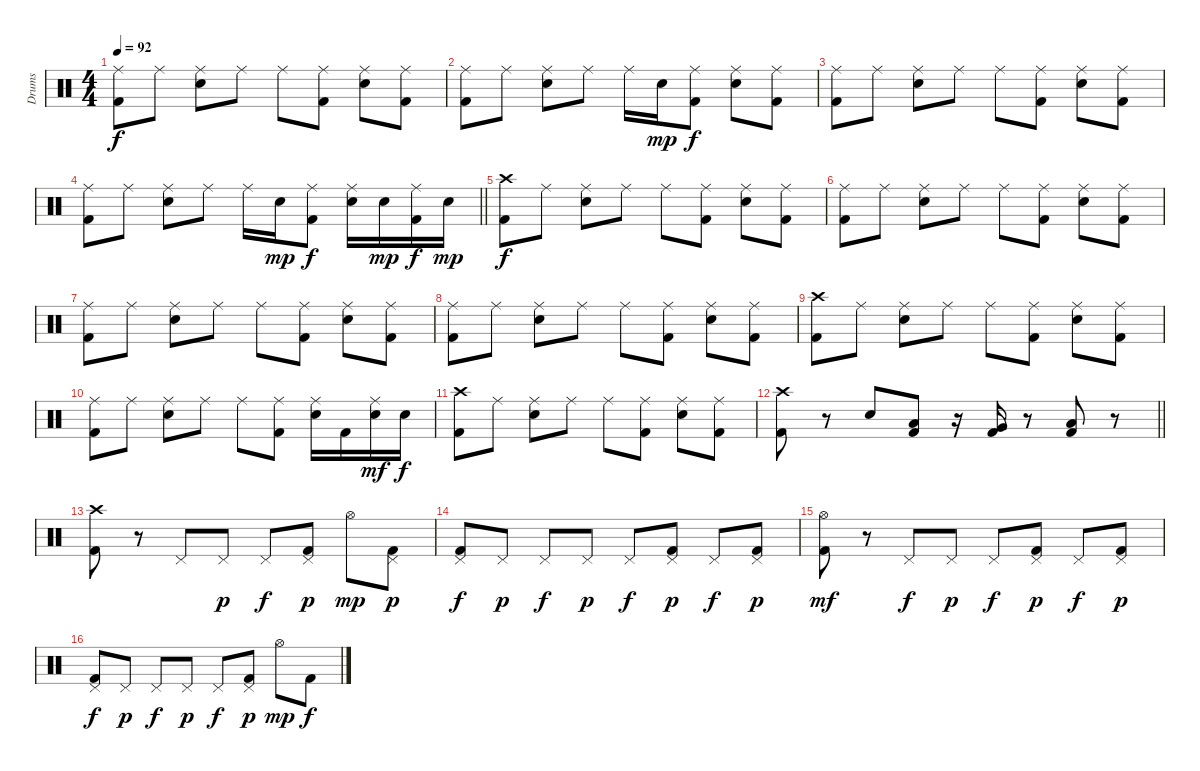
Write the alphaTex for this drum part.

\track ("Drums" "Drums") {instrument percussion}
\staff {score}
\articulation defaults
\ts (4 4)
\tempo 92
\clef neutral
\ks aminor
("Ride (middle)" "Kick (hit) 2").8{dy f} "Ride (middle)".8 ("Ride (middle)" "Electric Snare (hit)").8 "Ride (middle)".8 "Ride (middle)".8 ("Ride (middle)" "Kick (hit) 2").8 ("Ride (middle)" "Electric Snare (hit)").8 ("Ride (middle)" "Kick (hit) 2").8 |
("Ride (middle)" "Kick (hit) 2").8 "Ride (middle)".8 ("Ride (middle)" "Electric Snare (hit)").8 "Ride (middle)".8 "Ride (middle)".16 "Electric Snare (hit)".16{dy mp} ("Ride (middle)" "Kick (hit) 2").8{dy f} ("Ride (middle)" "Electric Snare (hit)").8 ("Ride (middle)" "Kick (hit) 2").8 |
("Ride (middle)" "Kick (hit) 2").8 "Ride (middle)".8 ("Ride (middle)" "Electric Snare (hit)").8 "Ride (middle)".8 "Ride (middle)".8 ("Ride (middle)" "Kick (hit) 2").8 ("Ride (middle)" "Electric Snare (hit)").8 ("Ride (middle)" "Kick (hit) 2").8 |
\barLineRight lightlight
("Ride (middle)" "Kick (hit) 2").8 "Ride (middle)".8 ("Ride (middle)" "Electric Snare (hit)").8 "Ride (middle)".8 "Ride (middle)".16 "Electric Snare (hit)".16{dy mp} ("Ride (middle)" "Kick (hit) 2").8{dy f} ("Ride (middle)" "Electric Snare (hit)").16 "Electric Snare (hit)".16{dy mp} ("Ride (middle)" "Kick (hit) 2").16{dy f} "Electric Snare (hit)".16{dy mp} |
("Crash high (hit)" "Kick (hit) 2").8{dy f} "Ride (middle)".8 ("Ride (middle)" "Electric Snare (hit)").8 "Ride (middle)".8 "Ride (middle)".8 ("Ride (middle)" "Kick (hit) 2").8 ("Ride (middle)" "Electric Snare (hit)").8 ("Ride (middle)" "Kick (hit) 2").8 |
("Ride (middle)" "Kick (hit) 2").8 "Ride (middle)".8 ("Ride (middle)" "Electric Snare (hit)").8 "Ride (middle)".8 "Ride (middle)".8 ("Ride (middle)" "Kick (hit) 2").8 ("Ride (middle)" "Electric Snare (hit)").8 ("Ride (middle)" "Kick (hit) 2").8 |
("Ride (middle)" "Kick (hit) 2").8 "Ride (middle)".8 ("Ride (middle)" "Electric Snare (hit)").8 "Ride (middle)".8 "Ride (middle)".8 ("Ride (middle)" "Kick (hit) 2").8 ("Ride (middle)" "Electric Snare (hit)").8 ("Ride (middle)" "Kick (hit) 2").8 |
("Ride (middle)" "Kick (hit) 2").8 "Ride (middle)".8 ("Ride (middle)" "Electric Snare (hit)").8 "Ride (middle)".8 "Ride (middle)".8 ("Ride (middle)" "Kick (hit) 2").8 ("Ride (middle)" "Electric Snare (hit)").8 ("Ride (middle)" "Kick (hit) 2").8 |
("Crash high (hit)" "Kick (hit) 2").8 "Ride (middle)".8 ("Ride (middle)" "Electric Snare (hit)").8 "Ride (middle)".8 "Ride (middle)".8 ("Ride (middle)" "Kick (hit) 2").8 ("Ride (middle)" "Electric Snare (hit)").8 ("Ride (middle)" "Kick (hit) 2").8 |
("Ride (middle)" "Kick (hit) 2").8 "Ride (middle)".8 ("Ride (middle)" "Electric Snare (hit)").8 "Ride (middle)".8 "Ride (middle)".8 ("Ride (middle)" "Kick (hit) 2").8 ("Ride (middle)" "Electric Snare (hit)").16 "Kick (hit) 2".16 ("Ride (middle)" "Electric Snare (hit)").16{dy mf} "Electric Snare (hit)".16{dy f} |
("Crash high (hit)" "Kick (hit) 2").8 "Ride (middle)".8 ("Ride (middle)" "Electric Snare (hit)").8 "Ride (middle)".8 "Ride (middle)".8 ("Ride (middle)" "Kick (hit) 2").8 ("Ride (middle)" "Electric Snare (hit)").8 ("Ride (middle)" "Kick (hit) 2").8 |
\barLineRight lightlight
("Crash high (hit)" "Kick (hit) 2").8 r.8 "Electric Snare (hit)".8 ("Low Tom (hit)" "Kick (hit) 2").8 r.16 ("Very Low Tom (hit)" "Kick (hit) 2").16 r.8 ("Low Floor Tom (hit)" "Kick (hit) 2").8 r.8 |
("Crash high (hit)" "Kick (hit) 2").8 r.8 "Pedal Hi-Hat (hit)".8 "Pedal Hi-Hat (hit)".8{dy p} "Pedal Hi-Hat (hit)".8{dy f} ("Pedal Hi-Hat (hit)" "Kick (hit) 2").8{dy p} "Hi-Hat (open)".8{dy mp} ("Pedal Hi-Hat (hit)" "Kick (hit) 2").8{dy p} |
("Pedal Hi-Hat (hit)" "Kick (hit) 2").8{dy f} "Pedal Hi-Hat (hit)".8{dy p} "Pedal Hi-Hat (hit)".8{dy f} "Pedal Hi-Hat (hit)".8{dy p} "Pedal Hi-Hat (hit)".8{dy f} ("Pedal Hi-Hat (hit)" "Kick (hit) 2").8{dy p} "Pedal Hi-Hat (hit)".8{dy f} ("Pedal Hi-Hat (hit)" "Kick (hit) 2").8{dy p} |
("Hi-Hat (open)" "Kick (hit) 2").8{dy mf} r.8 "Pedal Hi-Hat (hit)".8{dy f} "Pedal Hi-Hat (hit)".8{dy p} "Pedal Hi-Hat (hit)".8{dy f} ("Pedal Hi-Hat (hit)" "Kick (hit) 2").8{dy p} "Pedal Hi-Hat (hit)".8{dy f} ("Pedal Hi-Hat (hit)" "Kick (hit) 2").8{dy p} |
("Pedal Hi-Hat (hit)" "Kick (hit) 2").8{dy f} "Pedal Hi-Hat (hit)".8{dy p} "Pedal Hi-Hat (hit)".8{dy f} "Pedal Hi-Hat (hit)".8{dy p} "Pedal Hi-Hat (hit)".8{dy f} ("Pedal Hi-Hat (hit)" "Kick (hit) 2").8{dy p} "Hi-Hat (open)".8{dy mp} "Kick (hit) 2".8{dy f}
